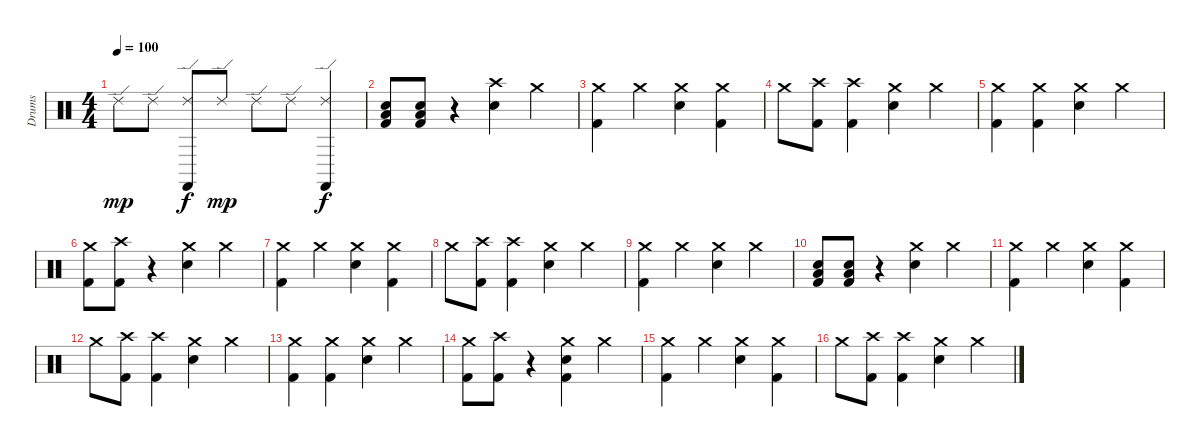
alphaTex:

\track ("Drums" "Drums") {instrument percussion}
\staff {score}
\articulation defaults
\ts (4 4)
\tempo 100
\clef neutral
\ks c "Ride (edge) 2".8{dy mp} "Ride (edge) 2".8
("Ride (edge) 2" "Castanets (hit)").8{dy f} "Ride (edge) 2".8{dy mp} "Ride (edge) 2".8 "Ride (edge) 2".8 ("Ride (edge) 2" "Castanets (hit)").4{dy f} |
("Low Tom (hit)" "Snare (hit) 2" "Kick (hit) 2").8 ("Low Tom (hit)" "Snare (hit) 2" "Kick (hit) 2").8 r.4 ("Crash high (hit)" "Snare (hit) 2").4 "Crash medium (hit)".4 |
("Crash medium (hit)" "Kick (hit) 2").4 "Crash medium (hit)".4 ("Crash medium (hit)" "Snare (hit) 2").4 ("Crash medium (hit)" "Kick (hit) 2").4 |
"Crash medium (hit)".8 ("Crash high (hit)" "Kick (hit) 2").8 ("Crash high (hit)" "Kick (hit) 2").4 ("Crash medium (hit)" "Snare (hit) 2").4 "Crash medium (hit)".4 |
("Crash medium (hit)" "Kick (hit) 2").4 ("Crash medium (hit)" "Kick (hit) 2").4 ("Crash medium (hit)" "Snare (hit) 2").4 "Crash medium (hit)".4 |
("Crash medium (hit)" "Kick (hit) 2").8 ("Crash high (hit)" "Kick (hit) 2").8 r.4 ("Crash medium (hit)" "Snare (hit) 2").4 "Crash medium (hit)".4 |
("Crash medium (hit)" "Kick (hit) 2").4 "Crash medium (hit)".4 ("Crash medium (hit)" "Snare (hit) 2").4 ("Crash medium (hit)" "Kick (hit) 2").4 |
"Crash medium (hit)".8 ("Crash high (hit)" "Kick (hit) 2").8 ("Crash high (hit)" "Kick (hit) 2").4 ("Crash medium (hit)" "Snare (hit) 2").4 "Crash medium (hit)".4 |
("Crash medium (hit)" "Kick (hit) 2").4 "Crash medium (hit)".4 ("Crash medium (hit)" "Snare (hit) 2").4 "Crash medium (hit)".4 |
("Low Tom (hit)" "Snare (hit) 2" "Kick (hit) 2").8 ("Low Tom (hit)" "Snare (hit) 2" "Kick (hit) 2").8 r.4 ("Crash medium (hit)" "Snare (hit) 2").4 "Crash medium (hit)".4 |
("Crash medium (hit)" "Kick (hit) 2").4 "Crash medium (hit)".4 ("Crash medium (hit)" "Snare (hit) 2").4 ("Crash medium (hit)" "Kick (hit) 2").4 |
"Crash medium (hit)".8 ("Crash high (hit)" "Kick (hit) 2").8 ("Crash high (hit)" "Kick (hit) 2").4 ("Crash medium (hit)" "Snare (hit) 2").4 "Crash medium (hit)".4 |
("Crash medium (hit)" "Kick (hit) 2").4 ("Crash medium (hit)" "Kick (hit) 2").4 ("Crash medium (hit)" "Snare (hit) 2").4 "Crash medium (hit)".4 |
("Crash medium (hit)" "Kick (hit) 2").8 ("Crash high (hit)" "Kick (hit) 2").8 r.4 ("Crash medium (hit)" "Snare (hit) 2" "Kick (hit) 2").4 "Crash medium (hit)".4 |
("Crash medium (hit)" "Kick (hit) 2").4 "Crash medium (hit)".4 ("Crash medium (hit)" "Snare (hit) 2").4 ("Crash medium (hit)" "Kick (hit) 2").4 |
"Crash medium (hit)".8 ("Crash high (hit)" "Kick (hit) 2").8 ("Crash high (hit)" "Kick (hit) 2").4 ("Crash medium (hit)" "Snare (hit) 2").4 "Crash medium (hit)".4
